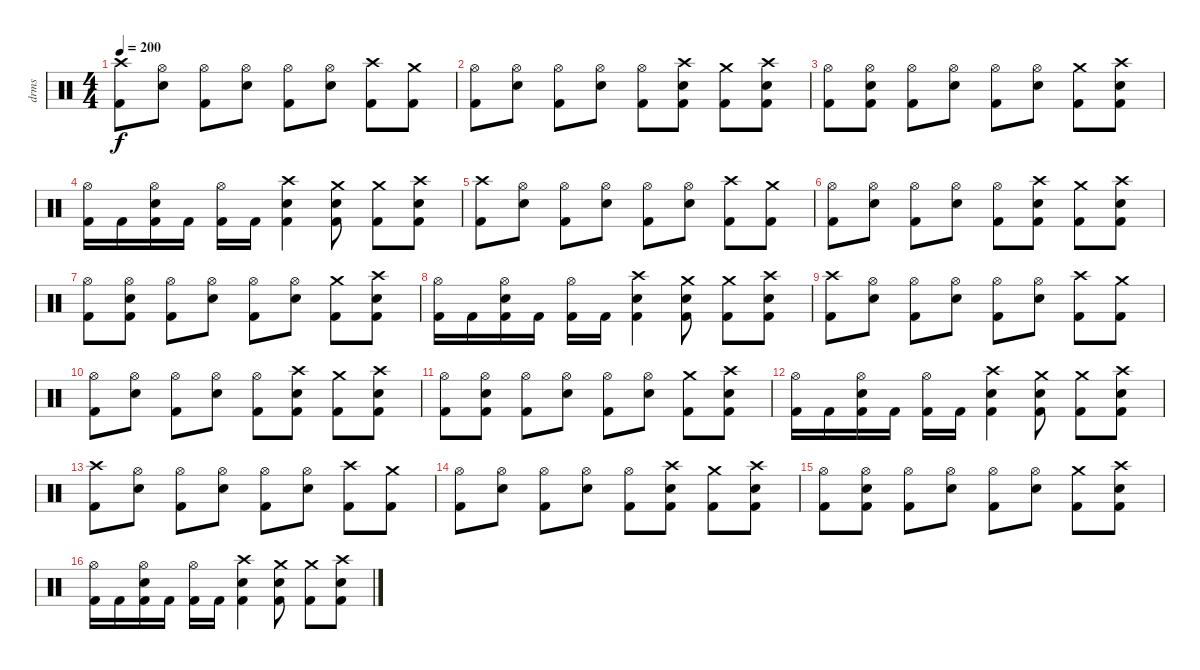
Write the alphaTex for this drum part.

\track ("drms" "drms") {instrument percussion}
\staff {score}
\articulation defaults
\ts (4 4)
\tempo 200
\clef neutral
\ks c
("Crash high (hit)" "Kick (hit) 2").8{dy f} ("Hi-Hat (open)" "Snare (hit) 2").8 ("Hi-Hat (open)" "Kick (hit) 2").8 ("Hi-Hat (open)" "Snare (hit) 2").8 ("Hi-Hat (open)" "Kick (hit) 2").8 ("Hi-Hat (open)" "Snare (hit) 2").8 ("Crash high (hit)" "Kick (hit) 2").8 ("Crash medium (hit)" "Kick (hit) 2").8 |
("Hi-Hat (open)" "Kick (hit) 2").8 ("Hi-Hat (open)" "Snare (hit) 2").8 ("Hi-Hat (open)" "Kick (hit) 2").8 ("Hi-Hat (open)" "Snare (hit) 2").8 ("Hi-Hat (open)" "Kick (hit) 2").8 ("Crash high (hit)" "Snare (hit) 2" "Kick (hit) 2").8 ("Crash medium (hit)" "Kick (hit) 2").8 ("Crash high (hit)" "Snare (hit) 2" "Kick (hit) 2").8 |
("Hi-Hat (open)" "Kick (hit) 2").8 ("Hi-Hat (open)" "Snare (hit) 2" "Kick (hit) 2").8 ("Hi-Hat (open)" "Kick (hit) 2").8 ("Hi-Hat (open)" "Snare (hit) 2").8 ("Hi-Hat (open)" "Kick (hit) 2").8 ("Hi-Hat (open)" "Snare (hit) 2").8 ("Crash medium (hit)" "Kick (hit) 2").8 ("Crash high (hit)" "Snare (hit) 2" "Kick (hit) 2").8 |
("Hi-Hat (open)" "Kick (hit) 2").16 "Kick (hit) 2".16 ("Hi-Hat (open)" "Snare (hit) 2" "Kick (hit) 2").16 "Kick (hit) 2".16 ("Hi-Hat (open)" "Kick (hit) 2").16 "Kick (hit) 2".16 ("Crash high (hit)" "Snare (hit) 2" "Kick (hit) 2").4 ("Crash medium (hit)" "Snare (hit) 2" "Kick (hit) 2").8 ("Crash medium (hit)" "Kick (hit) 2").8 ("Crash high (hit)" "Snare (hit) 2" "Kick (hit) 2").8 |
("Crash high (hit)" "Kick (hit) 2").8 ("Hi-Hat (open)" "Snare (hit) 2").8 ("Hi-Hat (open)" "Kick (hit) 2").8 ("Hi-Hat (open)" "Snare (hit) 2").8 ("Hi-Hat (open)" "Kick (hit) 2").8 ("Hi-Hat (open)" "Snare (hit) 2").8 ("Crash high (hit)" "Kick (hit) 2").8 ("Crash medium (hit)" "Kick (hit) 2").8 |
("Hi-Hat (open)" "Kick (hit) 2").8 ("Hi-Hat (open)" "Snare (hit) 2").8 ("Hi-Hat (open)" "Kick (hit) 2").8 ("Hi-Hat (open)" "Snare (hit) 2").8 ("Hi-Hat (open)" "Kick (hit) 2").8 ("Crash high (hit)" "Snare (hit) 2" "Kick (hit) 2").8 ("Crash medium (hit)" "Kick (hit) 2").8 ("Crash high (hit)" "Snare (hit) 2" "Kick (hit) 2").8 |
("Hi-Hat (open)" "Kick (hit) 2").8 ("Hi-Hat (open)" "Snare (hit) 2" "Kick (hit) 2").8 ("Hi-Hat (open)" "Kick (hit) 2").8 ("Hi-Hat (open)" "Snare (hit) 2").8 ("Hi-Hat (open)" "Kick (hit) 2").8 ("Hi-Hat (open)" "Snare (hit) 2").8 ("Crash medium (hit)" "Kick (hit) 2").8 ("Crash high (hit)" "Snare (hit) 2" "Kick (hit) 2").8 |
("Hi-Hat (open)" "Kick (hit) 2").16 "Kick (hit) 2".16 ("Hi-Hat (open)" "Snare (hit) 2" "Kick (hit) 2").16 "Kick (hit) 2".16 ("Hi-Hat (open)" "Kick (hit) 2").16 "Kick (hit) 2".16 ("Crash high (hit)" "Snare (hit) 2" "Kick (hit) 2").4 ("Crash medium (hit)" "Snare (hit) 2" "Kick (hit) 2").8 ("Crash medium (hit)" "Kick (hit) 2").8 ("Crash high (hit)" "Snare (hit) 2" "Kick (hit) 2").8 |
("Crash high (hit)" "Kick (hit) 2").8 ("Hi-Hat (open)" "Snare (hit) 2").8 ("Hi-Hat (open)" "Kick (hit) 2").8 ("Hi-Hat (open)" "Snare (hit) 2").8 ("Hi-Hat (open)" "Kick (hit) 2").8 ("Hi-Hat (open)" "Snare (hit) 2").8 ("Crash high (hit)" "Kick (hit) 2").8 ("Crash medium (hit)" "Kick (hit) 2").8 |
("Hi-Hat (open)" "Kick (hit) 2").8 ("Hi-Hat (open)" "Snare (hit) 2").8 ("Hi-Hat (open)" "Kick (hit) 2").8 ("Hi-Hat (open)" "Snare (hit) 2").8 ("Hi-Hat (open)" "Kick (hit) 2").8 ("Crash high (hit)" "Snare (hit) 2" "Kick (hit) 2").8 ("Crash medium (hit)" "Kick (hit) 2").8 ("Crash high (hit)" "Snare (hit) 2" "Kick (hit) 2").8 |
("Hi-Hat (open)" "Kick (hit) 2").8 ("Hi-Hat (open)" "Snare (hit) 2" "Kick (hit) 2").8 ("Hi-Hat (open)" "Kick (hit) 2").8 ("Hi-Hat (open)" "Snare (hit) 2").8 ("Hi-Hat (open)" "Kick (hit) 2").8 ("Hi-Hat (open)" "Snare (hit) 2").8 ("Crash medium (hit)" "Kick (hit) 2").8 ("Crash high (hit)" "Snare (hit) 2" "Kick (hit) 2").8 |
("Hi-Hat (open)" "Kick (hit) 2").16 "Kick (hit) 2".16 ("Hi-Hat (open)" "Snare (hit) 2" "Kick (hit) 2").16 "Kick (hit) 2".16 ("Hi-Hat (open)" "Kick (hit) 2").16 "Kick (hit) 2".16 ("Crash high (hit)" "Snare (hit) 2" "Kick (hit) 2").4 ("Crash medium (hit)" "Snare (hit) 2" "Kick (hit) 2").8 ("Crash medium (hit)" "Kick (hit) 2").8 ("Crash high (hit)" "Snare (hit) 2" "Kick (hit) 2").8 |
("Crash high (hit)" "Kick (hit) 2").8 ("Hi-Hat (open)" "Snare (hit) 2").8 ("Hi-Hat (open)" "Kick (hit) 2").8 ("Hi-Hat (open)" "Snare (hit) 2").8 ("Hi-Hat (open)" "Kick (hit) 2").8 ("Hi-Hat (open)" "Snare (hit) 2").8 ("Crash high (hit)" "Kick (hit) 2").8 ("Crash medium (hit)" "Kick (hit) 2").8 |
("Hi-Hat (open)" "Kick (hit) 2").8 ("Hi-Hat (open)" "Snare (hit) 2").8 ("Hi-Hat (open)" "Kick (hit) 2").8 ("Hi-Hat (open)" "Snare (hit) 2").8 ("Hi-Hat (open)" "Kick (hit) 2").8 ("Crash high (hit)" "Snare (hit) 2" "Kick (hit) 2").8 ("Crash medium (hit)" "Kick (hit) 2").8 ("Crash high (hit)" "Snare (hit) 2" "Kick (hit) 2").8 |
("Hi-Hat (open)" "Kick (hit) 2").8 ("Hi-Hat (open)" "Snare (hit) 2" "Kick (hit) 2").8 ("Hi-Hat (open)" "Kick (hit) 2").8 ("Hi-Hat (open)" "Snare (hit) 2").8 ("Hi-Hat (open)" "Kick (hit) 2").8 ("Hi-Hat (open)" "Snare (hit) 2").8 ("Crash medium (hit)" "Kick (hit) 2").8 ("Crash high (hit)" "Snare (hit) 2" "Kick (hit) 2").8 |
("Hi-Hat (open)" "Kick (hit) 2").16 "Kick (hit) 2".16 ("Hi-Hat (open)" "Snare (hit) 2" "Kick (hit) 2").16 "Kick (hit) 2".16 ("Hi-Hat (open)" "Kick (hit) 2").16 "Kick (hit) 2".16 ("Crash high (hit)" "Snare (hit) 2" "Kick (hit) 2").4 ("Crash medium (hit)" "Snare (hit) 2" "Kick (hit) 2").8 ("Crash medium (hit)" "Kick (hit) 2").8 ("Crash high (hit)" "Snare (hit) 2" "Kick (hit) 2").8
